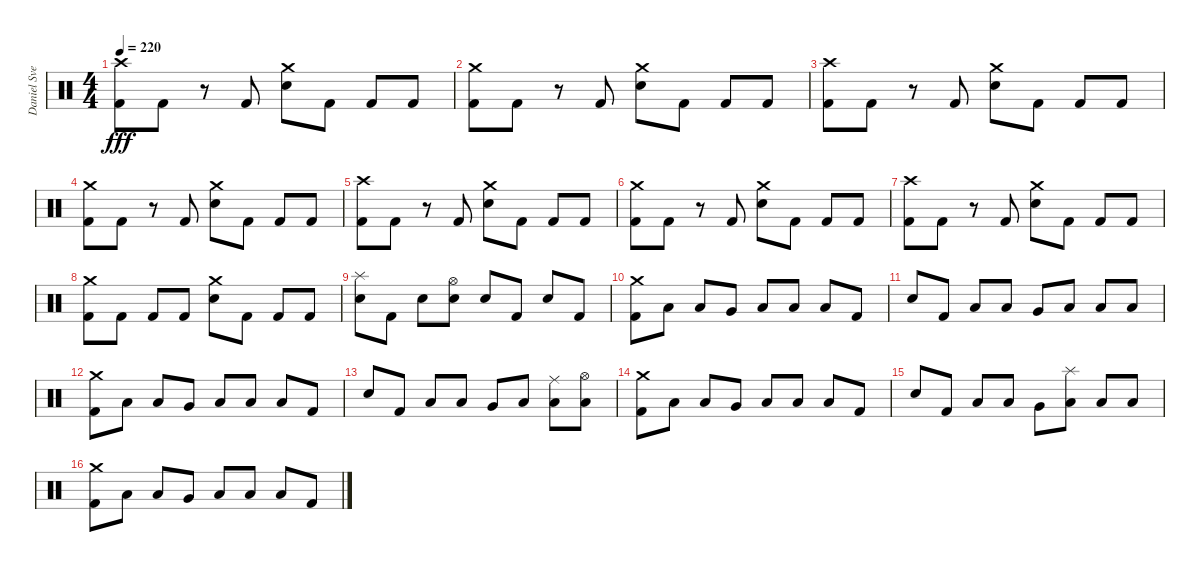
\track ("Daniel Svensson" "Daniel Sve") {instrument percussion}
\staff {score}
\articulation defaults
\ts (4 4)
\tempo 220
\clef neutral
\ks c
("Crash high (hit)" "Kick (hit) 2").8{dy fff} "Kick (hit) 2".8 r.8 "Kick (hit) 2".8 ("Crash medium (hit)" "Electric Snare (hit)").8 "Kick (hit) 2".8 "Kick (hit) 2".8 "Kick (hit) 2".8 |
("Crash medium (hit)" "Kick (hit) 2").8 "Kick (hit) 2".8 r.8 "Kick (hit) 2".8 ("Crash medium (hit)" "Electric Snare (hit)").8 "Kick (hit) 2".8 "Kick (hit) 2".8 "Kick (hit) 2".8 |
("Crash high (hit)" "Kick (hit) 2").8 "Kick (hit) 2".8 r.8 "Kick (hit) 2".8 ("Crash medium (hit)" "Electric Snare (hit)").8 "Kick (hit) 2".8 "Kick (hit) 2".8 "Kick (hit) 2".8 |
("Crash medium (hit)" "Kick (hit) 2").8 "Kick (hit) 2".8 r.8 "Kick (hit) 2".8 ("Crash medium (hit)" "Electric Snare (hit)").8 "Kick (hit) 2".8 "Kick (hit) 2".8 "Kick (hit) 2".8 |
("Crash high (hit)" "Kick (hit) 2").8 "Kick (hit) 2".8 r.8 "Kick (hit) 2".8 ("Crash medium (hit)" "Electric Snare (hit)").8 "Kick (hit) 2".8 "Kick (hit) 2".8 "Kick (hit) 2".8 |
("Crash medium (hit)" "Kick (hit) 2").8 "Kick (hit) 2".8 r.8 "Kick (hit) 2".8 ("Crash medium (hit)" "Electric Snare (hit)").8 "Kick (hit) 2".8 "Kick (hit) 2".8 "Kick (hit) 2".8 |
("Crash high (hit)" "Kick (hit) 2").8 "Kick (hit) 2".8 r.8 "Kick (hit) 2".8 ("Crash medium (hit)" "Electric Snare (hit)").8 "Kick (hit) 2".8 "Kick (hit) 2".8 "Kick (hit) 2".8 |
("Crash medium (hit)" "Kick (hit) 2").8 "Kick (hit) 2".8 "Kick (hit) 2".8 "Kick (hit) 2".8 ("Crash medium (hit)" "Electric Snare (hit)").8 "Kick (hit) 2".8 "Kick (hit) 2".8 "Kick (hit) 2".8 |
("Splash (hit)" "Electric Snare (hit)").8 "Kick (hit) 2".8 "Electric Snare (hit)".8 ("Hi-Hat (open)" "Electric Snare (hit)").8 "Electric Snare (hit)".8 "Kick (hit) 2".8 "Electric Snare (hit)".8 "Kick (hit) 2".8 |
("Crash medium (hit)" "Kick (hit) 2").8 "Low Tom (hit)".8 "Low Floor Tom (hit)".8 "Very Low Tom (hit)".8 "Low Tom (hit)".8 "Low Floor Tom (hit)".8 "Low Floor Tom (hit)".8 "Kick (hit) 2".8 |
"Electric Snare (hit)".8 "Kick (hit) 2".8 "Low Floor Tom (hit)".8 "Low Tom (hit)".8 "Very Low Tom (hit)".8 "Low Floor Tom (hit)".8 "Low Tom (hit)".8 "Low Floor Tom (hit)".8 |
("Crash medium (hit)" "Kick (hit) 2").8 "Low Tom (hit)".8 "Low Floor Tom (hit)".8 "Very Low Tom (hit)".8 "Low Tom (hit)".8 "Low Floor Tom (hit)".8 "Low Floor Tom (hit)".8 "Kick (hit) 2".8 |
"Electric Snare (hit)".8 "Kick (hit) 2".8 "Low Floor Tom (hit)".8 "Low Tom (hit)".8 "Very Low Tom (hit)".8 "Low Floor Tom (hit)".8 ("Ride (middle)" "Low Tom (hit)").8 ("Hi-Hat (open)" "Low Floor Tom (hit)").8 |
("Crash medium (hit)" "Kick (hit) 2").8 "Low Tom (hit)".8 "Low Floor Tom (hit)".8 "Very Low Tom (hit)".8 "Low Tom (hit)".8 "Low Floor Tom (hit)".8 "Low Floor Tom (hit)".8 "Kick (hit) 2".8 |
"Electric Snare (hit)".8 "Kick (hit) 2".8 "Low Floor Tom (hit)".8 "Low Tom (hit)".8 "Very Low Tom (hit)".8 ("Splash (hit)" "Low Floor Tom (hit)").8 "Low Tom (hit)".8 "Low Floor Tom (hit)".8 |
("Crash medium (hit)" "Kick (hit) 2").8 "Low Tom (hit)".8 "Low Floor Tom (hit)".8 "Very Low Tom (hit)".8 "Low Tom (hit)".8 "Low Floor Tom (hit)".8 "Low Floor Tom (hit)".8 "Kick (hit) 2".8
